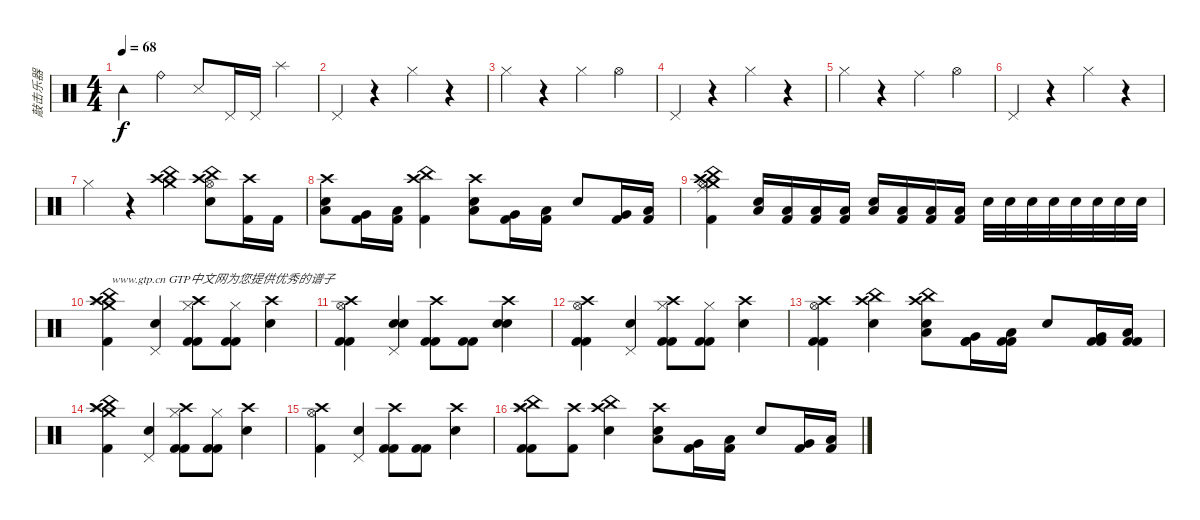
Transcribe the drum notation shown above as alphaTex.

\track ("敲击乐器" "敲击乐器") {instrument percussion}
\staff {score}
\articulation defaults
\ts (4 4)
\tempo 68
\clef neutral
\ks c "Tambourine (hit)".4{dy f} "Ride (bell)".4 "Metronome (hit)".8 "Pedal Hi-Hat (hit)".16 "Pedal Hi-Hat (hit)".16 "Splash (hit)".4
|
"Pedal Hi-Hat (hit)".4 r.4 "Hi-Hat (closed)".4 r.4 |
"Hi-Hat (closed)".4 r.4 "Hi-Hat (closed)".4 "Hi-Hat (open)".4 |
"Pedal Hi-Hat (hit)".4 r.4 "Hi-Hat (closed)".4 r.4 |
"Hi-Hat (closed)".4 r.4 "Ride (middle)".4 "Hi-Hat (open)".4 |
"Pedal Hi-Hat (hit)".4 r.4 "Hi-Hat (closed)".4 r.4 |
"Hi-Hat (closed)".4 r.4 ("China (hit)" "Crash high (hit)" "Crash medium (hit)").4 ("Crash high (hit)" "Hi-Hat (open)" "China (hit)" "Electric Snare (hit)").8 ("Crash high (hit)" "Kick (hit) 2").16 "Kick (hit) 2".16 |
("Crash high (hit)" "Low Tom (hit)" "Electric Snare (hit)").8 ("Very Low Tom (hit)" "Kick (hit) 2").16 ("Low Floor Tom (hit)" "Kick (hit) 2").16 ("Crash high (hit)" "China (hit)" "Kick (hit) 2").4 ("Crash high (hit)" "Low Tom (hit)" "Electric Snare (hit)").8 ("Very Low Tom (hit)" "Kick (hit) 2").16 ("Low Floor Tom (hit)" "Kick (hit) 2").16 "Electric Snare (hit)".8 ("Very Low Tom (hit)" "Kick (hit) 2").16 ("Low Floor Tom (hit)" "Kick (hit) 2").16 |
("Crash medium (hit)" "Ride (middle)" "China (hit)" "Crash high (hit)" "Hi-Hat (open)" "Kick (hit) 2").4 ("Low Floor Tom (hit)" "Electric Snare (hit)").16 ("Low Floor Tom (hit)" "Kick (hit) 2").16 ("Low Floor Tom (hit)" "Kick (hit) 2").16 ("Low Floor Tom (hit)" "Kick (hit) 2").16 ("Low Floor Tom (hit)" "Electric Snare (hit)").16 ("Low Floor Tom (hit)" "Kick (hit) 2").16 ("Low Floor Tom (hit)" "Kick (hit) 2").16 ("Low Floor Tom (hit)" "Kick (hit) 2").16 "Electric Snare (hit)".32 "Electric Snare (hit)".32 "Electric Snare (hit)".32 "Electric Snare (hit)".32 "Electric Snare (hit)".32 "Electric Snare (hit)".32 "Electric Snare (hit)".32 "Electric Snare (hit)".32 |
("Kick (hit) 2" "Crash high (hit)" "China (hit)" "Splash (hit)" "Crash medium (hit)").4{txt "www.gtp.cn GTP中文网为您提供优秀的谱子"} ("Pedal Hi-Hat (hit)" "Snare (hit) 2").4 ("Crash high (hit)" "Hi-Hat (closed)" "Kick (hit) 2" "Kick (hit) 2").8 ("Hi-Hat (closed)" "Kick (hit) 2" "Kick (hit) 2").8 ("Crash high (hit)" "Electric Snare (hit)").4 |
("Crash high (hit)" "Hi-Hat (open)" "Kick (hit) 2" "Kick (hit) 2").4 ("Pedal Hi-Hat (hit)" "Snare (hit) 2" "Snare (hit) 2").4 ("Crash high (hit)" "Kick (hit) 2" "Kick (hit) 2").8 ("Kick (hit) 2" "Kick (hit) 2").8 ("Crash high (hit)" "Electric Snare (hit)" "Electric Snare (hit)").4 |
("Crash high (hit)" "Hi-Hat (open)" "Kick (hit) 2" "Kick (hit) 2").4 ("Pedal Hi-Hat (hit)" "Snare (hit) 2").4 ("Crash high (hit)" "Hi-Hat (closed)" "Kick (hit) 2" "Kick (hit) 2").8 ("Hi-Hat (closed)" "Kick (hit) 2" "Kick (hit) 2").8 ("Crash high (hit)" "Electric Snare (hit)").4 |
("Crash high (hit)" "Hi-Hat (open)" "Kick (hit) 2" "Kick (hit) 2").4 ("China (hit)" "Crash high (hit)" "Snare (hit) 2").4 ("China (hit)" "Crash high (hit)" "Low Tom (hit)" "Electric Snare (hit)").8 ("Very Low Tom (hit)" "Kick (hit) 2" "Kick (hit) 2").16 ("Low Floor Tom (hit)" "Kick (hit) 2" "Kick (hit) 2").16 "Electric Snare (hit)".8 ("Very Low Tom (hit)" "Kick (hit) 2" "Kick (hit) 2").16 ("Low Floor Tom (hit)" "Kick (hit) 2" "Kick (hit) 2").16 |
("Kick (hit) 2" "Crash high (hit)" "China (hit)" "Splash (hit)" "Crash medium (hit)").4 ("Pedal Hi-Hat (hit)" "Snare (hit) 2").4 ("Crash high (hit)" "Hi-Hat (closed)" "Kick (hit) 2" "Kick (hit) 2").8 ("Hi-Hat (closed)" "Kick (hit) 2" "Kick (hit) 2").8 ("Crash high (hit)" "Electric Snare (hit)").4 |
("Crash high (hit)" "Hi-Hat (open)" "Kick (hit) 2").4 ("Pedal Hi-Hat (hit)" "Snare (hit) 2").4 ("Crash high (hit)" "Kick (hit) 2" "Kick (hit) 2").8 ("Kick (hit) 2" "Kick (hit) 2").8 ("Crash high (hit)" "Electric Snare (hit)").4 |
("Kick (hit) 2" "Crash high (hit)" "China (hit)" "Splash (hit)" "Kick (hit) 2").8 ("Crash high (hit)" "Kick (hit) 2").8 ("China (hit)" "Crash high (hit)" "Snare (hit) 2").4 ("Crash high (hit)" "Low Tom (hit)" "Electric Snare (hit)").8 ("Very Low Tom (hit)" "Kick (hit) 2").16 ("Low Floor Tom (hit)" "Kick (hit) 2").16 "Electric Snare (hit)".8 ("Very Low Tom (hit)" "Kick (hit) 2").16 ("Low Floor Tom (hit)" "Kick (hit) 2").16
